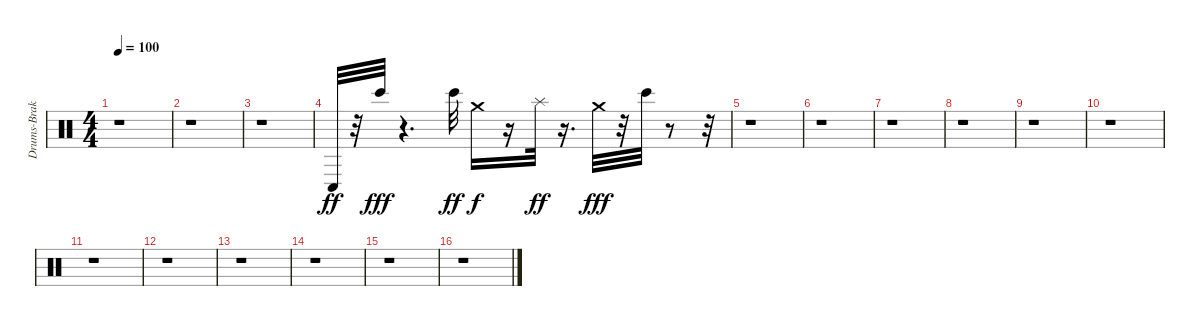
\track ("Drums-Brakes" "Drums-Brak") {instrument percussion}
\staff {score}
\articulation defaults
\ts (4 4)
\tempo 100
\clef neutral
\ks c
r.1{dy fff} |
r.1 |
r.1 |
"Conga low (hit)".32{dy ff} r.32 "Bongo High (hit)".32{dy fff} r.4{d} "Bongo High (hit)".32{dy ff} "Crash medium (hit)".16{dy f} r.16 "Splash (hit)".32{dy ff} r.16{d} "Crash medium (hit)".32{dy fff} r.32 "Bongo High (hit)".32 r.8 r.32 |
r.1 |
r.1 |
r.1 |
r.1 |
r.1 |
r.1 |
r.1 |
r.1 |
r.1 |
r.1 |
r.1 |
r.1
